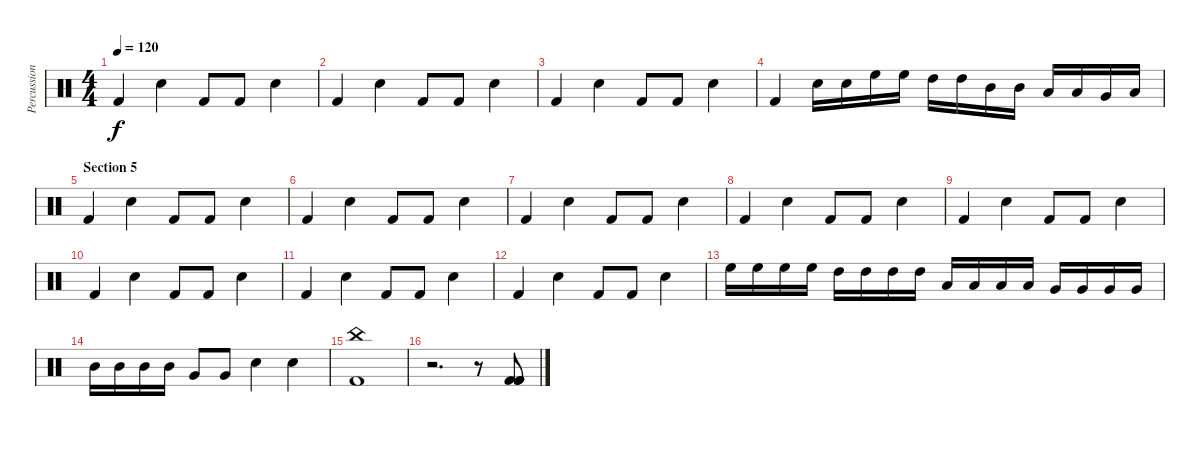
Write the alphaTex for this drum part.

\track ("Percussions" "Percussion") {instrument percussion}
\staff {score}
\articulation defaults
\ts (4 4)
\tempo 120
\clef neutral
\ks c "Kick (hit) 2".4{dy f} "Snare (hit) 2".4 "Kick (hit) 2".8 "Kick (hit) 2".8 "Electric Snare (hit)".4
|
"Kick (hit) 2".4 "Snare (hit) 2".4 "Kick (hit) 2".8 "Kick (hit) 2".8 "Electric Snare (hit)".4 |
"Kick (hit) 2".4 "Snare (hit) 2".4 "Kick (hit) 2".8 "Kick (hit) 2".8 "Electric Snare (hit)".4 |
"Kick (hit) 2".4 "Snare (hit) 2".16 "Snare (hit) 2".16 "High Floor Tom (hit)".16 "High Floor Tom (hit)".16 "High Tom (hit)".16 "High Tom (hit)".16 "Mid Tom (hit)".16 "Mid Tom (hit)".16 "Low Tom (hit)".16 "Low Tom (hit)".16 "Very Low Tom (hit)".16 "Low Floor Tom (hit)".16 |
\section ("" "Section 5")
"Kick (hit) 2".4 "Snare (hit) 2".4 "Kick (hit) 2".8 "Kick (hit) 2".8 "Electric Snare (hit)".4 |
"Kick (hit) 2".4 "Snare (hit) 2".4 "Kick (hit) 2".8 "Kick (hit) 2".8 "Electric Snare (hit)".4 |
"Kick (hit) 2".4 "Snare (hit) 2".4 "Kick (hit) 2".8 "Kick (hit) 2".8 "Electric Snare (hit)".4 |
"Kick (hit) 2".4 "Snare (hit) 2".4 "Kick (hit) 2".8 "Kick (hit) 2".8 "Electric Snare (hit)".4 |
"Kick (hit) 2".4 "Snare (hit) 2".4 "Kick (hit) 2".8 "Kick (hit) 2".8 "Electric Snare (hit)".4 |
"Kick (hit) 2".4 "Snare (hit) 2".4 "Kick (hit) 2".8 "Kick (hit) 2".8 "Electric Snare (hit)".4 |
"Kick (hit) 2".4 "Snare (hit) 2".4 "Kick (hit) 2".8 "Kick (hit) 2".8 "Electric Snare (hit)".4 |
"Kick (hit) 2".4 "Snare (hit) 2".4 "Kick (hit) 2".8 "Kick (hit) 2".8 "Electric Snare (hit)".4 |
"High Floor Tom (hit)".16 "High Floor Tom (hit)".16 "High Floor Tom (hit)".16 "High Floor Tom (hit)".16 "High Tom (hit)".16 "High Tom (hit)".16 "High Tom (hit)".16 "High Tom (hit)".16 "Low Tom (hit)".16 "Low Tom (hit)".16 "Low Tom (hit)".16 "Low Tom (hit)".16 "Very Low Tom (hit)".16 "Very Low Tom (hit)".16 "Very Low Tom (hit)".16 "Very Low Tom (hit)".16 |
"Mid Tom (hit)".16 "Mid Tom (hit)".16 "Mid Tom (hit)".16 "Mid Tom (hit)".16 "Very Low Tom (hit)".8 "Very Low Tom (hit)".8 "Electric Snare (hit)".4 "Electric Snare (hit)".4 |
("Kick (hit) 2" "China (hit)").1 |
r.2{d} r.8 ("Kick (hit) 2" "Kick (hit) 2" "Kick (hit) 2").8
